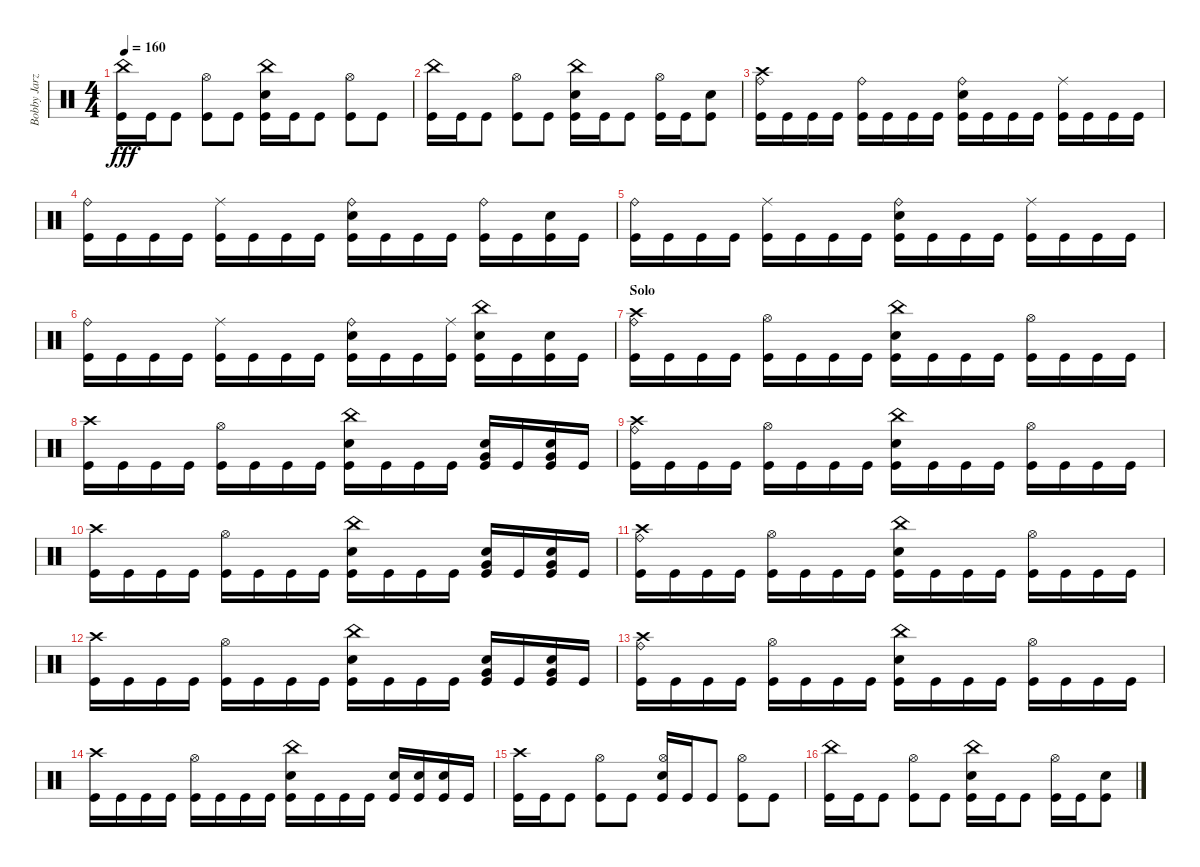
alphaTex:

\track ("Bobby Jarzombek" "Bobby Jarz") {instrument percussion}
\staff {score}
\articulation defaults
\ts (4 4)
\tempo 160
\clef neutral
\ks c
("China (hit)" "Kick (hit)").16{dy fff} "Kick (hit)".16 "Kick (hit)".8 ("Hi-Hat (open)" "Kick (hit)").8 "Kick (hit)".8 ("China (hit)" "Electric Snare (hit)" "Kick (hit)").16 "Kick (hit)".16 "Kick (hit)".8 ("Hi-Hat (open)" "Kick (hit)").8 "Kick (hit)".8 |
("China (hit)" "Kick (hit)").16 "Kick (hit)".16 "Kick (hit)".8 ("Hi-Hat (open)" "Kick (hit)").8 "Kick (hit)".8 ("China (hit)" "Electric Snare (hit)" "Kick (hit)").16 "Kick (hit)".16 "Kick (hit)".8 ("Hi-Hat (open)" "Kick (hit)").16 "Kick (hit)".16 ("Electric Snare (hit)" "Kick (hit)").8 |
("Crash high (hit)" "Ride (bell)" "Kick (hit)").16 "Kick (hit)".16 "Kick (hit)".16 "Kick (hit)".16 ("Ride (bell)" "Kick (hit)").16 "Kick (hit)".16 "Kick (hit)".16 "Kick (hit)".16 ("Ride (bell)" "Electric Snare (hit)" "Kick (hit)").16 "Kick (hit)".16 "Kick (hit)".16 "Kick (hit)".16 ("Ride (middle)" "Kick (hit)").16 "Kick (hit)".16 "Kick (hit)".16 "Kick (hit)".16 |
("Ride (bell)" "Kick (hit)").16 "Kick (hit)".16 "Kick (hit)".16 "Kick (hit)".16 ("Ride (middle)" "Kick (hit)").16 "Kick (hit)".16 "Kick (hit)".16 "Kick (hit)".16 ("Ride (bell)" "Electric Snare (hit)" "Kick (hit)").16 "Kick (hit)".16 "Kick (hit)".16 "Kick (hit)".16 ("Ride (bell)" "Kick (hit)").16 "Kick (hit)".16 ("Electric Snare (hit)" "Kick (hit)").16 "Kick (hit)".16 |
("Ride (bell)" "Kick (hit)").16 "Kick (hit)".16 "Kick (hit)".16 "Kick (hit)".16 ("Ride (middle)" "Kick (hit)").16 "Kick (hit)".16 "Kick (hit)".16 "Kick (hit)".16 ("Ride (bell)" "Electric Snare (hit)" "Kick (hit)").16 "Kick (hit)".16 "Kick (hit)".16 "Kick (hit)".16 ("Ride (middle)" "Kick (hit)").16 "Kick (hit)".16 "Kick (hit)".16 "Kick (hit)".16 |
("Ride (bell)" "Kick (hit)").16 "Kick (hit)".16 "Kick (hit)".16 "Kick (hit)".16 ("Ride (middle)" "Kick (hit)").16 "Kick (hit)".16 "Kick (hit)".16 "Kick (hit)".16 ("Ride (bell)" "Electric Snare (hit)" "Kick (hit)").16 "Kick (hit)".16 "Kick (hit)".16 ("Ride (middle)" "Kick (hit)").16 ("China (hit)" "Electric Snare (hit)" "Kick (hit)").16 "Kick (hit)".16 ("Electric Snare (hit)" "Kick (hit)").16 "Kick (hit)".16 |
\section ("" "Solo")
("Crash high (hit)" "Ride (bell)" "Kick (hit)").16 "Kick (hit)".16 "Kick (hit)".16 "Kick (hit)".16 ("Hi-Hat (open)" "Kick (hit)").16 "Kick (hit)".16 "Kick (hit)".16 "Kick (hit)".16 ("China (hit)" "Electric Snare (hit)" "Kick (hit)").16 "Kick (hit)".16 "Kick (hit)".16 "Kick (hit)".16 ("Hi-Hat (open)" "Kick (hit)").16 "Kick (hit)".16 "Kick (hit)".16 "Kick (hit)".16 |
("Crash high (hit)" "Kick (hit)").16 "Kick (hit)".16 "Kick (hit)".16 "Kick (hit)".16 ("Hi-Hat (open)" "Kick (hit)").16 "Kick (hit)".16 "Kick (hit)".16 "Kick (hit)".16 ("China (hit)" "Electric Snare (hit)" "Kick (hit)").16 "Kick (hit)".16 "Kick (hit)".16 "Kick (hit)".16 ("Very Low Tom (hit)" "Electric Snare (hit)" "Kick (hit)").16 "Kick (hit)".16 ("Very Low Tom (hit)" "Electric Snare (hit)" "Kick (hit)").16 "Kick (hit)".16 |
("Crash high (hit)" "Ride (bell)" "Kick (hit)").16 "Kick (hit)".16 "Kick (hit)".16 "Kick (hit)".16 ("Hi-Hat (open)" "Kick (hit)").16 "Kick (hit)".16 "Kick (hit)".16 "Kick (hit)".16 ("China (hit)" "Electric Snare (hit)" "Kick (hit)").16 "Kick (hit)".16 "Kick (hit)".16 "Kick (hit)".16 ("Hi-Hat (open)" "Kick (hit)").16 "Kick (hit)".16 "Kick (hit)".16 "Kick (hit)".16 |
("Crash high (hit)" "Kick (hit)").16 "Kick (hit)".16 "Kick (hit)".16 "Kick (hit)".16 ("Hi-Hat (open)" "Kick (hit)").16 "Kick (hit)".16 "Kick (hit)".16 "Kick (hit)".16 ("China (hit)" "Electric Snare (hit)" "Kick (hit)").16 "Kick (hit)".16 "Kick (hit)".16 "Kick (hit)".16 ("Very Low Tom (hit)" "Electric Snare (hit)" "Kick (hit)").16 "Kick (hit)".16 ("Very Low Tom (hit)" "Electric Snare (hit)" "Kick (hit)").16 "Kick (hit)".16 |
("Crash high (hit)" "Ride (bell)" "Kick (hit)").16 "Kick (hit)".16 "Kick (hit)".16 "Kick (hit)".16 ("Hi-Hat (open)" "Kick (hit)").16 "Kick (hit)".16 "Kick (hit)".16 "Kick (hit)".16 ("China (hit)" "Electric Snare (hit)" "Kick (hit)").16 "Kick (hit)".16 "Kick (hit)".16 "Kick (hit)".16 ("Hi-Hat (open)" "Kick (hit)").16 "Kick (hit)".16 "Kick (hit)".16 "Kick (hit)".16 |
("Crash high (hit)" "Kick (hit)").16 "Kick (hit)".16 "Kick (hit)".16 "Kick (hit)".16 ("Hi-Hat (open)" "Kick (hit)").16 "Kick (hit)".16 "Kick (hit)".16 "Kick (hit)".16 ("China (hit)" "Electric Snare (hit)" "Kick (hit)").16 "Kick (hit)".16 "Kick (hit)".16 "Kick (hit)".16 ("Very Low Tom (hit)" "Electric Snare (hit)" "Kick (hit)").16 "Kick (hit)".16 ("Very Low Tom (hit)" "Electric Snare (hit)" "Kick (hit)").16 "Kick (hit)".16 |
("Crash high (hit)" "Ride (bell)" "Kick (hit)").16 "Kick (hit)".16 "Kick (hit)".16 "Kick (hit)".16 ("Hi-Hat (open)" "Kick (hit)").16 "Kick (hit)".16 "Kick (hit)".16 "Kick (hit)".16 ("China (hit)" "Electric Snare (hit)" "Kick (hit)").16 "Kick (hit)".16 "Kick (hit)".16 "Kick (hit)".16 ("Hi-Hat (open)" "Kick (hit)").16 "Kick (hit)".16 "Kick (hit)".16 "Kick (hit)".16 |
("Crash high (hit)" "Kick (hit)").16 "Kick (hit)".16 "Kick (hit)".16 "Kick (hit)".16 ("Hi-Hat (open)" "Kick (hit)").16 "Kick (hit)".16 "Kick (hit)".16 "Kick (hit)".16 ("China (hit)" "Electric Snare (hit)" "Kick (hit)").16 "Kick (hit)".16 "Kick (hit)".16 "Kick (hit)".16 ("Electric Snare (hit)" "Kick (hit)").16 ("Electric Snare (hit)" "Kick (hit)").16 ("Electric Snare (hit)" "Kick (hit)").16 "Kick (hit)".16 |
("Crash high (hit)" "Kick (hit)").16 "Kick (hit)".16 "Kick (hit)".8 ("Hi-Hat (open)" "Kick (hit)").8 "Kick (hit)".8 ("Hi-Hat (open)" "Electric Snare (hit)" "Kick (hit)").16 "Kick (hit)".16 "Kick (hit)".8 ("Hi-Hat (open)" "Kick (hit)").8 "Kick (hit)".8 |
("China (hit)" "Kick (hit)").16 "Kick (hit)".16 "Kick (hit)".8 ("Hi-Hat (open)" "Kick (hit)").8 "Kick (hit)".8 ("China (hit)" "Electric Snare (hit)" "Kick (hit)").16 "Kick (hit)".16 "Kick (hit)".8 ("Hi-Hat (open)" "Kick (hit)").16 "Kick (hit)".16 ("Electric Snare (hit)" "Kick (hit)").8
